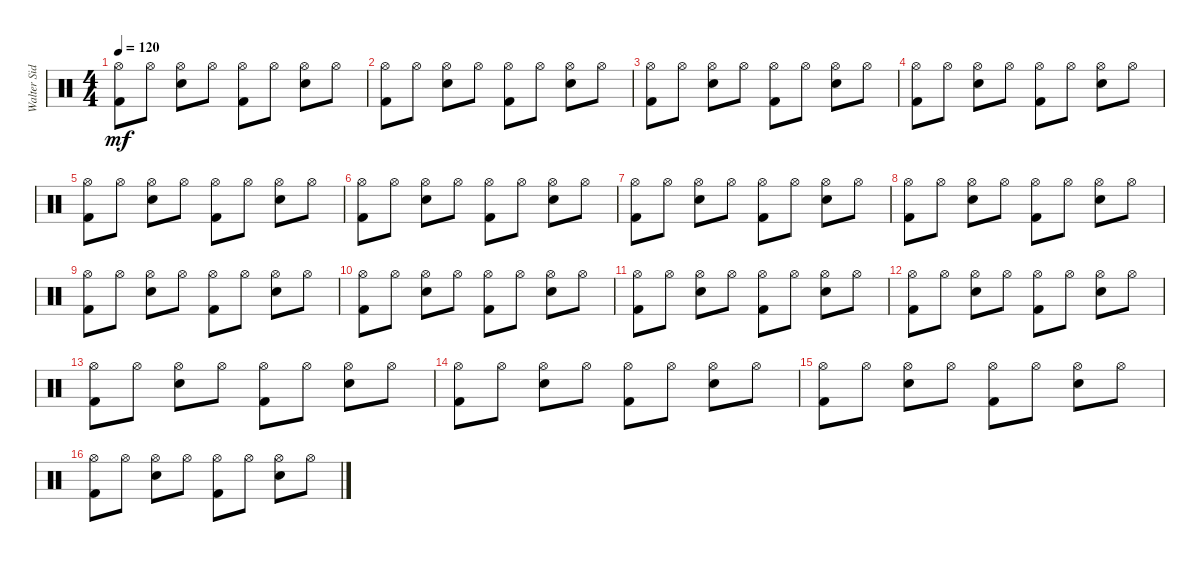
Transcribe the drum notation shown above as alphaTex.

\track ("Walter Sidotti" "Walter Sid") {instrument percussion}
\staff {score}
\articulation defaults
\ts (4 4)
\tempo 120
\clef neutral
\ks c
("Kick (hit) 2" "Hi-Hat (open)").8{dy mf} "Hi-Hat (open)".8 ("Electric Snare (hit)" "Hi-Hat (open)").8 "Hi-Hat (open)".8 ("Kick (hit) 2" "Hi-Hat (open)").8 "Hi-Hat (open)".8 ("Electric Snare (hit)" "Hi-Hat (open)").8 "Hi-Hat (open)".8 |
("Kick (hit) 2" "Hi-Hat (open)").8 "Hi-Hat (open)".8 ("Electric Snare (hit)" "Hi-Hat (open)").8 "Hi-Hat (open)".8 ("Kick (hit) 2" "Hi-Hat (open)").8 "Hi-Hat (open)".8 ("Electric Snare (hit)" "Hi-Hat (open)").8 "Hi-Hat (open)".8 |
("Kick (hit) 2" "Hi-Hat (open)").8 "Hi-Hat (open)".8 ("Electric Snare (hit)" "Hi-Hat (open)").8 "Hi-Hat (open)".8 ("Kick (hit) 2" "Hi-Hat (open)").8 "Hi-Hat (open)".8 ("Electric Snare (hit)" "Hi-Hat (open)").8 "Hi-Hat (open)".8 |
("Kick (hit) 2" "Hi-Hat (open)").8 "Hi-Hat (open)".8 ("Electric Snare (hit)" "Hi-Hat (open)").8 "Hi-Hat (open)".8 ("Kick (hit) 2" "Hi-Hat (open)").8 "Hi-Hat (open)".8 ("Electric Snare (hit)" "Hi-Hat (open)").8 "Hi-Hat (open)".8 |
("Kick (hit) 2" "Hi-Hat (open)").8 "Hi-Hat (open)".8 ("Electric Snare (hit)" "Hi-Hat (open)").8 "Hi-Hat (open)".8 ("Kick (hit) 2" "Hi-Hat (open)").8 "Hi-Hat (open)".8 ("Electric Snare (hit)" "Hi-Hat (open)").8 "Hi-Hat (open)".8 |
("Kick (hit) 2" "Hi-Hat (open)").8 "Hi-Hat (open)".8 ("Electric Snare (hit)" "Hi-Hat (open)").8 "Hi-Hat (open)".8 ("Kick (hit) 2" "Hi-Hat (open)").8 "Hi-Hat (open)".8 ("Electric Snare (hit)" "Hi-Hat (open)").8 "Hi-Hat (open)".8 |
("Kick (hit) 2" "Hi-Hat (open)").8 "Hi-Hat (open)".8 ("Electric Snare (hit)" "Hi-Hat (open)").8 "Hi-Hat (open)".8 ("Kick (hit) 2" "Hi-Hat (open)").8 "Hi-Hat (open)".8 ("Electric Snare (hit)" "Hi-Hat (open)").8 "Hi-Hat (open)".8 |
("Kick (hit) 2" "Hi-Hat (open)").8 "Hi-Hat (open)".8 ("Electric Snare (hit)" "Hi-Hat (open)").8 "Hi-Hat (open)".8 ("Kick (hit) 2" "Hi-Hat (open)").8 "Hi-Hat (open)".8 ("Electric Snare (hit)" "Hi-Hat (open)").8 "Hi-Hat (open)".8 |
("Kick (hit) 2" "Hi-Hat (open)").8 "Hi-Hat (open)".8 ("Electric Snare (hit)" "Hi-Hat (open)").8 "Hi-Hat (open)".8 ("Kick (hit) 2" "Hi-Hat (open)").8 "Hi-Hat (open)".8 ("Electric Snare (hit)" "Hi-Hat (open)").8 "Hi-Hat (open)".8 |
("Kick (hit) 2" "Hi-Hat (open)").8 "Hi-Hat (open)".8 ("Electric Snare (hit)" "Hi-Hat (open)").8 "Hi-Hat (open)".8 ("Kick (hit) 2" "Hi-Hat (open)").8 "Hi-Hat (open)".8 ("Electric Snare (hit)" "Hi-Hat (open)").8 "Hi-Hat (open)".8 |
("Kick (hit) 2" "Hi-Hat (open)").8 "Hi-Hat (open)".8 ("Electric Snare (hit)" "Hi-Hat (open)").8 "Hi-Hat (open)".8 ("Kick (hit) 2" "Hi-Hat (open)").8 "Hi-Hat (open)".8 ("Electric Snare (hit)" "Hi-Hat (open)").8 "Hi-Hat (open)".8 |
("Kick (hit) 2" "Hi-Hat (open)").8 "Hi-Hat (open)".8 ("Electric Snare (hit)" "Hi-Hat (open)").8 "Hi-Hat (open)".8 ("Kick (hit) 2" "Hi-Hat (open)").8 "Hi-Hat (open)".8 ("Electric Snare (hit)" "Hi-Hat (open)").8 "Hi-Hat (open)".8 |
("Kick (hit) 2" "Hi-Hat (open)").8 "Hi-Hat (open)".8 ("Electric Snare (hit)" "Hi-Hat (open)").8 "Hi-Hat (open)".8 ("Kick (hit) 2" "Hi-Hat (open)").8 "Hi-Hat (open)".8 ("Electric Snare (hit)" "Hi-Hat (open)").8 "Hi-Hat (open)".8 |
("Kick (hit) 2" "Hi-Hat (open)").8 "Hi-Hat (open)".8 ("Electric Snare (hit)" "Hi-Hat (open)").8 "Hi-Hat (open)".8 ("Kick (hit) 2" "Hi-Hat (open)").8 "Hi-Hat (open)".8 ("Electric Snare (hit)" "Hi-Hat (open)").8 "Hi-Hat (open)".8 |
("Kick (hit) 2" "Hi-Hat (open)").8 "Hi-Hat (open)".8 ("Electric Snare (hit)" "Hi-Hat (open)").8 "Hi-Hat (open)".8 ("Kick (hit) 2" "Hi-Hat (open)").8 "Hi-Hat (open)".8 ("Electric Snare (hit)" "Hi-Hat (open)").8 "Hi-Hat (open)".8 |
("Kick (hit) 2" "Hi-Hat (open)").8 "Hi-Hat (open)".8 ("Electric Snare (hit)" "Hi-Hat (open)").8 "Hi-Hat (open)".8 ("Kick (hit) 2" "Hi-Hat (open)").8 "Hi-Hat (open)".8 ("Electric Snare (hit)" "Hi-Hat (open)").8 "Hi-Hat (open)".8
